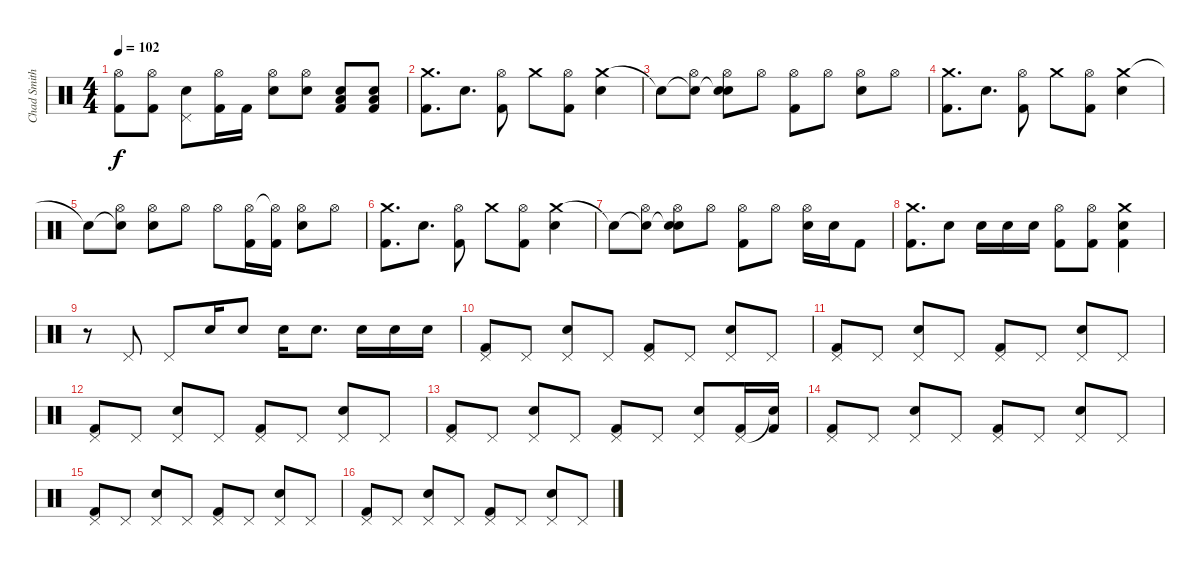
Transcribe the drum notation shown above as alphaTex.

\track ("Chad Smith (Batterie)" "Chad Smith") {instrument percussion}
\staff {score}
\articulation defaults
\ts (4 4)
\tempo 102
\clef neutral
\ks c
("Hi-Hat (open)" "Kick (hit) 2").8{dy f} ("Hi-Hat (open)" "Kick (hit) 2").8 ("Pedal Hi-Hat (hit)" "Electric Snare (hit)").8 ("Hi-Hat (open)" "Kick (hit) 2").16 "Kick (hit) 2".16 ("Hi-Hat (open)" "Electric Snare (hit)").8 ("Hi-Hat (open)" "Electric Snare (hit)").8 ("Low Tom (hit)" "Electric Snare (hit)" "Kick (hit) 2").8 ("Low Tom (hit)" "Electric Snare (hit)" "Kick (hit) 2").8 |
("Crash medium (hit)" "Kick (hit) 2").8{d} "Electric Snare (hit)".8{d} ("Hi-Hat (open)" "Kick (hit) 2").8 "Crash medium (hit)".8 ("Hi-Hat (open)" "Kick (hit) 2").8 ("Crash medium (hit)" "Electric Snare (hit)").4 |
"Snare (hit)"{t}.8 ("Snare (hit)"{t} "Hi-Hat (open)").8 ("Snare (hit)"{t} "Hi-Hat (open)" "Electric Snare (hit)").8 "Hi-Hat (open)".8 ("Hi-Hat (open)" "Kick (hit) 2").8 "Hi-Hat (open)".8 ("Hi-Hat (open)" "Electric Snare (hit)").8 "Hi-Hat (open)".8 |
("Crash medium (hit)" "Kick (hit) 2").8{d} "Electric Snare (hit)".8{d} ("Hi-Hat (open)" "Kick (hit) 2").8 "Crash medium (hit)".8 ("Hi-Hat (open)" "Kick (hit) 2").8 ("Crash medium (hit)" "Electric Snare (hit)").4 |
"Snare (hit)"{t}.8 ("Snare (hit)"{t} "Hi-Hat (open)").8 ("Hi-Hat (open)" "Electric Snare (hit)").8 "Hi-Hat (open)".8 "Hi-Hat (open)".8 ("Hi-Hat (open)" "Kick (hit) 2").16 ("Hi-Hat (open)"{t} "Kick (hit) 2").16 ("Hi-Hat (open)" "Electric Snare (hit)").8 "Hi-Hat (open)".8 |
("Crash medium (hit)" "Kick (hit) 2").8{d} "Electric Snare (hit)".8{d} ("Hi-Hat (open)" "Kick (hit) 2").8 "Crash medium (hit)".8 ("Hi-Hat (open)" "Kick (hit) 2").8 ("Crash medium (hit)" "Electric Snare (hit)").4 |
"Snare (hit)"{t}.8 ("Snare (hit)"{t} "Hi-Hat (open)").8 ("Snare (hit)"{t} "Hi-Hat (open)" "Electric Snare (hit)").8 "Hi-Hat (open)".8 ("Hi-Hat (open)" "Kick (hit) 2").8 "Hi-Hat (open)".8 ("Hi-Hat (open)" "Electric Snare (hit)").16 "Electric Snare (hit)".16 "Kick (hit) 2".8 |
("Crash medium (hit)" "Kick (hit) 2").8{d} "Electric Snare (hit)".8 "Electric Snare (hit)".16 "Electric Snare (hit)".16 "Electric Snare (hit)".16 ("Hi-Hat (open)" "Kick (hit) 2").8 ("Hi-Hat (open)" "Kick (hit) 2").8 ("Crash medium (hit)" "Electric Snare (hit)" "Kick (hit) 2").4 |
r.8 "Pedal Hi-Hat (hit)".8 "Pedal Hi-Hat (hit)".8 "Electric Snare (hit)".16 "Electric Snare (hit)".8 "Electric Snare (hit)".16 "Electric Snare (hit)".8{d} "Electric Snare (hit)".16 "Electric Snare (hit)".16 "Electric Snare (hit)".16 |
("Pedal Hi-Hat (hit)" "Kick (hit) 2").8 "Pedal Hi-Hat (hit)".8 ("Pedal Hi-Hat (hit)" "Electric Snare (hit)").8 "Pedal Hi-Hat (hit)".8 ("Pedal Hi-Hat (hit)" "Kick (hit) 2").8 "Pedal Hi-Hat (hit)".8 ("Pedal Hi-Hat (hit)" "Electric Snare (hit)").8 "Pedal Hi-Hat (hit)".8 |
("Pedal Hi-Hat (hit)" "Kick (hit) 2").8 "Pedal Hi-Hat (hit)".8 ("Pedal Hi-Hat (hit)" "Electric Snare (hit)").8 "Pedal Hi-Hat (hit)".8 ("Pedal Hi-Hat (hit)" "Kick (hit) 2").8 "Pedal Hi-Hat (hit)".8 ("Pedal Hi-Hat (hit)" "Electric Snare (hit)").8 "Pedal Hi-Hat (hit)".8 |
("Pedal Hi-Hat (hit)" "Kick (hit) 2").8 "Pedal Hi-Hat (hit)".8 ("Pedal Hi-Hat (hit)" "Electric Snare (hit)").8 "Pedal Hi-Hat (hit)".8 ("Pedal Hi-Hat (hit)" "Kick (hit) 2").8 "Pedal Hi-Hat (hit)".8 ("Pedal Hi-Hat (hit)" "Electric Snare (hit)").8 "Pedal Hi-Hat (hit)".8 |
("Pedal Hi-Hat (hit)" "Kick (hit) 2").8 "Pedal Hi-Hat (hit)".8 ("Pedal Hi-Hat (hit)" "Electric Snare (hit)").8 "Pedal Hi-Hat (hit)".8 ("Pedal Hi-Hat (hit)" "Kick (hit) 2").8 "Pedal Hi-Hat (hit)".8 ("Pedal Hi-Hat (hit)" "Electric Snare (hit)").8 ("Pedal Hi-Hat (hit)" "Kick (hit) 2").16 ("Snare (hit)"{t} "Kick (hit) 2").16 |
("Pedal Hi-Hat (hit)" "Kick (hit) 2").8 "Pedal Hi-Hat (hit)".8 ("Pedal Hi-Hat (hit)" "Electric Snare (hit)").8 "Pedal Hi-Hat (hit)".8 ("Pedal Hi-Hat (hit)" "Kick (hit) 2").8 "Pedal Hi-Hat (hit)".8 ("Pedal Hi-Hat (hit)" "Electric Snare (hit)").8 "Pedal Hi-Hat (hit)".8 |
("Pedal Hi-Hat (hit)" "Kick (hit) 2").8 "Pedal Hi-Hat (hit)".8 ("Pedal Hi-Hat (hit)" "Electric Snare (hit)").8 "Pedal Hi-Hat (hit)".8 ("Pedal Hi-Hat (hit)" "Kick (hit) 2").8 "Pedal Hi-Hat (hit)".8 ("Pedal Hi-Hat (hit)" "Electric Snare (hit)").8 "Pedal Hi-Hat (hit)".8 |
("Pedal Hi-Hat (hit)" "Kick (hit) 2").8 "Pedal Hi-Hat (hit)".8 ("Pedal Hi-Hat (hit)" "Electric Snare (hit)").8 "Pedal Hi-Hat (hit)".8 ("Pedal Hi-Hat (hit)" "Kick (hit) 2").8 "Pedal Hi-Hat (hit)".8 ("Pedal Hi-Hat (hit)" "Electric Snare (hit)").8 "Pedal Hi-Hat (hit)".8
